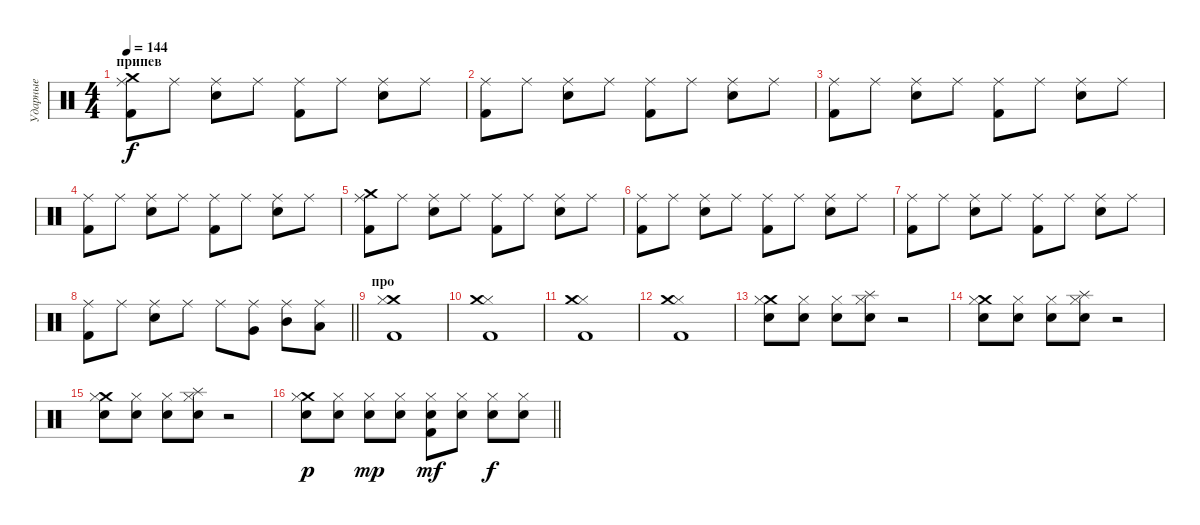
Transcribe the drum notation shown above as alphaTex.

\track ("Ударные" "Ударные") {instrument percussion}
\staff {score}
\articulation defaults
\ts (4 4)
\section ("" "припев")
\tempo 144
\clef neutral
\ks c
("Crash medium (hit)" "Ride (middle)" "Kick (hit) 2").8{dy f} "Ride (middle)".8 ("Ride (middle)" "Snare (hit) 2").8 "Ride (middle)".8 ("Ride (middle)" "Kick (hit) 2").8 "Ride (middle)".8 ("Ride (middle)" "Snare (hit) 2").8 "Ride (middle)".8 |
("Ride (middle)" "Kick (hit) 2").8 "Ride (middle)".8 ("Ride (middle)" "Snare (hit) 2").8 "Ride (middle)".8 ("Ride (middle)" "Kick (hit) 2").8 "Ride (middle)".8 ("Ride (middle)" "Snare (hit) 2").8 "Ride (middle)".8 |
("Ride (middle)" "Kick (hit) 2").8 "Ride (middle)".8 ("Ride (middle)" "Snare (hit) 2").8 "Ride (middle)".8 ("Ride (middle)" "Kick (hit) 2").8 "Ride (middle)".8 ("Ride (middle)" "Snare (hit) 2").8 "Ride (middle)".8 |
("Ride (middle)" "Kick (hit) 2").8 "Ride (middle)".8 ("Ride (middle)" "Snare (hit) 2").8 "Ride (middle)".8 ("Ride (middle)" "Kick (hit) 2").8 "Ride (middle)".8 ("Ride (middle)" "Snare (hit) 2").8 "Ride (middle)".8 |
("Crash medium (hit)" "Ride (middle)" "Kick (hit) 2").8 "Ride (middle)".8 ("Ride (middle)" "Snare (hit) 2").8 "Ride (middle)".8 ("Ride (middle)" "Kick (hit) 2").8 "Ride (middle)".8 ("Ride (middle)" "Snare (hit) 2").8 "Ride (middle)".8 |
("Ride (middle)" "Kick (hit) 2").8 "Ride (middle)".8 ("Ride (middle)" "Snare (hit) 2").8 "Ride (middle)".8 ("Ride (middle)" "Kick (hit) 2").8 "Ride (middle)".8 ("Ride (middle)" "Snare (hit) 2").8 "Ride (middle)".8 |
("Ride (middle)" "Kick (hit) 2").8 "Ride (middle)".8 ("Ride (middle)" "Snare (hit) 2").8 "Ride (middle)".8 ("Ride (middle)" "Kick (hit) 2").8 "Ride (middle)".8 ("Ride (middle)" "Snare (hit) 2").8 "Ride (middle)".8 |
\barLineRight lightlight
("Ride (middle)" "Kick (hit) 2").8 "Ride (middle)".8 ("Ride (middle)" "Snare (hit) 2").8 "Ride (middle)".8 "Ride (middle)".8 ("Very Low Tom (hit)" "Ride (middle)").8 ("Mid Tom (hit)" "Ride (middle)").8 ("Low Tom (hit)" "Ride (middle)").8 |
\section ("" "про")
("Crash medium (hit)" "Hi-Hat (closed)" "Kick (hit) 2").1 |
("Hi-Hat (closed)" "Crash medium (hit)" "Kick (hit) 2").1 |
("Hi-Hat (closed)" "Crash medium (hit)" "Kick (hit) 2").1 |
("Hi-Hat (closed)" "Crash medium (hit)" "Kick (hit) 2").1 |
("Crash medium (hit)" "Hi-Hat (closed)" "Snare (hit) 2").8 ("Hi-Hat (closed)" "Snare (hit) 2").8 ("Hi-Hat (closed)" "Snare (hit) 2").8 ("Splash (hit)" "Hi-Hat (closed)" "Snare (hit) 2").8 r.2 |
("Crash medium (hit)" "Hi-Hat (closed)" "Snare (hit) 2").8 ("Hi-Hat (closed)" "Snare (hit) 2").8 ("Hi-Hat (closed)" "Snare (hit) 2").8 ("Splash (hit)" "Hi-Hat (closed)" "Snare (hit) 2").8 r.2 |
("Crash medium (hit)" "Hi-Hat (closed)" "Snare (hit) 2").8 ("Hi-Hat (closed)" "Snare (hit) 2").8 ("Hi-Hat (closed)" "Snare (hit) 2").8 ("Splash (hit)" "Hi-Hat (closed)" "Snare (hit) 2").8 r.2 |
\barLineRight lightlight
("Crash medium (hit)" "Hi-Hat (closed)" "Snare (hit) 2").8{dy p} ("Hi-Hat (closed)" "Snare (hit) 2").8 ("Hi-Hat (closed)" "Snare (hit) 2").8{dy mp} ("Hi-Hat (closed)" "Snare (hit) 2").8 ("Kick (hit) 2" "Hi-Hat (closed)" "Snare (hit) 2").8{dy mf} ("Hi-Hat (closed)" "Snare (hit) 2").8 ("Hi-Hat (closed)" "Snare (hit) 2").8{dy f} ("Hi-Hat (closed)" "Snare (hit) 2").8
